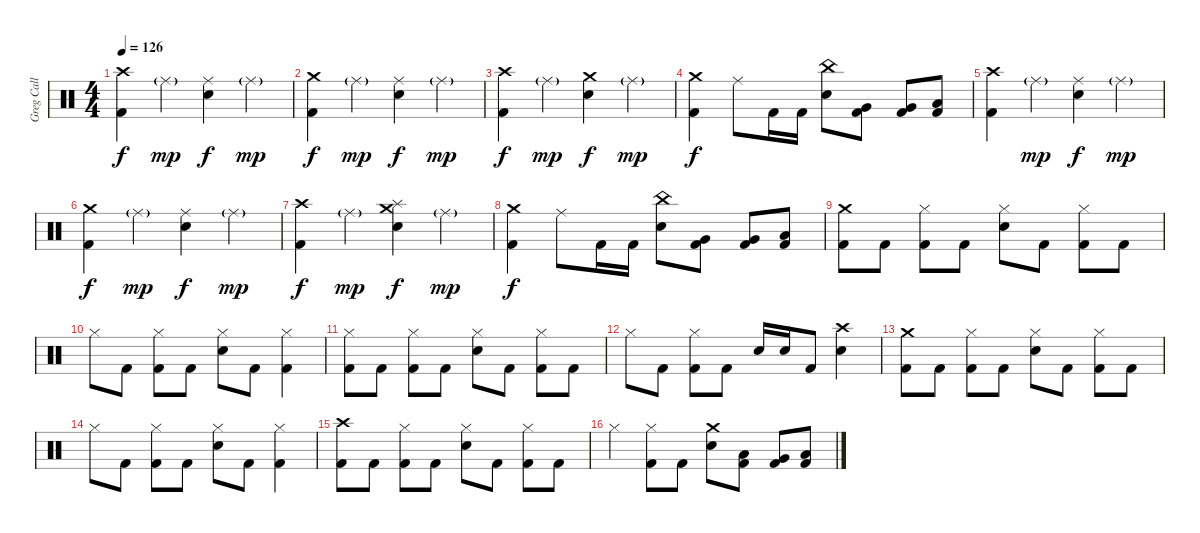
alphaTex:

\track ("Greg Call (Drums)" "Greg Call ") {instrument percussion}
\staff {score}
\articulation defaults
\ts (4 4)
\tempo 126
\clef neutral
\ks c
("Crash high (hit)" "Kick (hit) 2").4{dy f} "Ride (middle)"{g}.4{dy mp} ("Ride (middle)" "Snare (hit) 2").4{dy f} "Ride (middle)"{g}.4{dy mp} |
("Crash medium (hit)" "Kick (hit) 2").4{dy f} "Ride (middle)"{g}.4{dy mp} ("Ride (middle)" "Snare (hit) 2").4{dy f} "Ride (middle)"{g}.4{dy mp} |
("Crash high (hit)" "Kick (hit) 2").4{dy f} "Ride (middle)"{g}.4{dy mp} ("Crash medium (hit)" "Snare (hit) 2").4{dy f} "Ride (middle)"{g}.4{dy mp} |
("Crash medium (hit)" "Kick (hit) 2").4{dy f} "Ride (middle)".8 "Kick (hit) 2".16 "Kick (hit) 2".16 ("China (hit)" "Snare (hit) 2").8 ("Very Low Tom (hit)" "Kick (hit) 2").8 ("Very Low Tom (hit)" "Kick (hit) 2").8 ("Low Floor Tom (hit)" "Kick (hit) 2").8 |
("Crash high (hit)" "Kick (hit) 2").4 "Ride (middle)"{g}.4{dy mp} ("Ride (middle)" "Snare (hit) 2").4{dy f} "Ride (middle)"{g}.4{dy mp} |
("Crash medium (hit)" "Kick (hit) 2").4{dy f} "Ride (middle)"{g}.4{dy mp} ("Ride (middle)" "Snare (hit) 2").4{dy f} "Ride (middle)"{g}.4{dy mp} |
("Crash high (hit)" "Kick (hit) 2").4{dy f} "Ride (middle)"{g}.4{dy mp} ("Splash (hit)" "Crash medium (hit)" "Snare (hit) 2").4{dy f} "Ride (middle)"{g}.4{dy mp} |
("Crash medium (hit)" "Kick (hit) 2").4{dy f} "Ride (middle)".8 "Kick (hit) 2".16 "Kick (hit) 2".16 ("China (hit)" "Snare (hit) 2").8 ("Very Low Tom (hit)" "Kick (hit) 2").8 ("Very Low Tom (hit)" "Kick (hit) 2").8 ("Low Floor Tom (hit)" "Kick (hit) 2").8 |
("Crash medium (hit)" "Kick (hit) 2").8 "Kick (hit) 2".8 ("Hi-Hat (closed)" "Kick (hit) 2").8 "Kick (hit) 2".8 ("Hi-Hat (closed)" "Snare (hit) 2").8 "Kick (hit) 2".8 ("Hi-Hat (closed)" "Kick (hit) 2").8 "Kick (hit) 2".8 |
"Hi-Hat (closed)".8 "Kick (hit) 2".8 ("Hi-Hat (closed)" "Kick (hit) 2").8 "Kick (hit) 2".8 ("Hi-Hat (closed)" "Snare (hit) 2").8 "Kick (hit) 2".8 ("Hi-Hat (closed)" "Kick (hit) 2").4 |
("Hi-Hat (closed)" "Kick (hit) 2").8 "Kick (hit) 2".8 ("Hi-Hat (closed)" "Kick (hit) 2").8 "Kick (hit) 2".8 ("Hi-Hat (closed)" "Snare (hit) 2").8 "Kick (hit) 2".8 ("Hi-Hat (closed)" "Kick (hit) 2").8 "Kick (hit) 2".8 |
"Hi-Hat (closed)".8 "Kick (hit) 2".8 ("Hi-Hat (closed)" "Kick (hit) 2").8 "Kick (hit) 2".8 "Snare (hit) 2".16 "Snare (hit) 2".16 "Kick (hit) 2".8 ("Crash high (hit)" "Snare (hit) 2").4 |
("Crash medium (hit)" "Kick (hit) 2").8 "Kick (hit) 2".8 ("Hi-Hat (closed)" "Kick (hit) 2").8 "Kick (hit) 2".8 ("Hi-Hat (closed)" "Snare (hit) 2").8 "Kick (hit) 2".8 ("Hi-Hat (closed)" "Kick (hit) 2").8 "Kick (hit) 2".8 |
"Hi-Hat (closed)".8 "Kick (hit) 2".8 ("Hi-Hat (closed)" "Kick (hit) 2").8 "Kick (hit) 2".8 ("Hi-Hat (closed)" "Snare (hit) 2").8 "Kick (hit) 2".8 ("Hi-Hat (closed)" "Kick (hit) 2").4 |
("Crash high (hit)" "Kick (hit) 2").8 "Kick (hit) 2".8 ("Hi-Hat (closed)" "Kick (hit) 2").8 "Kick (hit) 2".8 ("Hi-Hat (closed)" "Snare (hit) 2").8 "Kick (hit) 2".8 ("Hi-Hat (closed)" "Kick (hit) 2").8 "Kick (hit) 2".8 |
"Hi-Hat (closed)".4 ("Hi-Hat (closed)" "Kick (hit) 2").8 "Kick (hit) 2".8 ("Snare (hit) 2" "Crash medium (hit)").8 ("Low Tom (hit)" "Kick (hit) 2").8 ("Very Low Tom (hit)" "Kick (hit) 2").8 ("Low Floor Tom (hit)" "Kick (hit) 2").8
